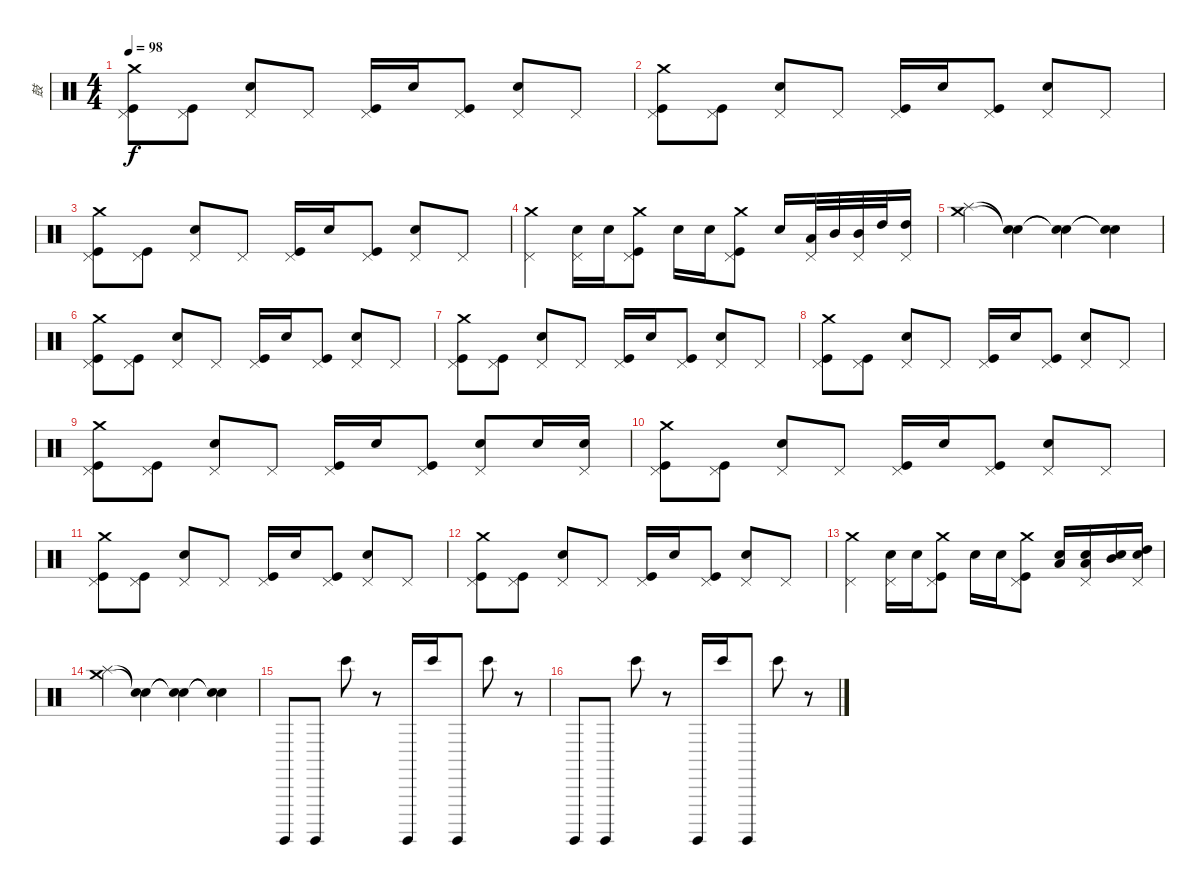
\track ("鼓" "鼓") {instrument percussion}
\staff {score}
\articulation defaults
\ts (4 4)
\tempo 98
\clef neutral
\ks c
("Pedal Hi-Hat (hit)" "Kick (hit)" "Crash medium (hit)").8{dy f} ("Pedal Hi-Hat (hit)" "Kick (hit)").8 ("Pedal Hi-Hat (hit)" "Electric Snare (hit)").8 "Pedal Hi-Hat (hit)".8 ("Pedal Hi-Hat (hit)" "Kick (hit)").16 "Electric Snare (hit)".16 ("Pedal Hi-Hat (hit)" "Kick (hit)").8 ("Pedal Hi-Hat (hit)" "Electric Snare (hit)").8 "Pedal Hi-Hat (hit)".8 |
("Pedal Hi-Hat (hit)" "Kick (hit)" "Crash medium (hit)").8 ("Pedal Hi-Hat (hit)" "Kick (hit)").8 ("Pedal Hi-Hat (hit)" "Electric Snare (hit)").8 "Pedal Hi-Hat (hit)".8 ("Pedal Hi-Hat (hit)" "Kick (hit)").16 "Electric Snare (hit)".16 ("Pedal Hi-Hat (hit)" "Kick (hit)").8 ("Pedal Hi-Hat (hit)" "Electric Snare (hit)").8 "Pedal Hi-Hat (hit)".8 |
("Pedal Hi-Hat (hit)" "Kick (hit)" "Crash medium (hit)").8 ("Pedal Hi-Hat (hit)" "Kick (hit)").8 ("Pedal Hi-Hat (hit)" "Electric Snare (hit)").8 "Pedal Hi-Hat (hit)".8 ("Pedal Hi-Hat (hit)" "Kick (hit)").16 "Electric Snare (hit)".16 ("Pedal Hi-Hat (hit)" "Kick (hit)").8 ("Pedal Hi-Hat (hit)" "Electric Snare (hit)").8 "Pedal Hi-Hat (hit)".8 |
("Pedal Hi-Hat (hit)" "Crash medium (hit)").4 ("Pedal Hi-Hat (hit)" "Electric Snare (hit)").16 "Electric Snare (hit)".16 ("Pedal Hi-Hat (hit)" "Kick (hit)" "Crash medium (hit)").8 "Electric Snare (hit)".16 "Electric Snare (hit)".16 ("Pedal Hi-Hat (hit)" "Kick (hit)" "Crash medium (hit)").8 "Electric Snare (hit)".16 ("Pedal Hi-Hat (hit)" "Low Tom (hit)").32 "Mid Tom (hit)".32 ("Pedal Hi-Hat (hit)" "Mid Tom (hit)").32 "High Tom (hit)".32 ("Pedal Hi-Hat (hit)" "High Tom (hit)").16 |
("Splash (hit)" "Crash medium (hit)").4 ("Snare (hit)"{t} "Snare (hit)"{t}).4 ("Snare (hit)"{t} "Snare (hit)"{t}).4 ("Snare (hit)"{t} "Snare (hit)"{t}).4 |
("Pedal Hi-Hat (hit)" "Kick (hit)" "Crash medium (hit)").8 ("Pedal Hi-Hat (hit)" "Kick (hit)").8 ("Pedal Hi-Hat (hit)" "Electric Snare (hit)").8 "Pedal Hi-Hat (hit)".8 ("Pedal Hi-Hat (hit)" "Kick (hit)").16 "Electric Snare (hit)".16 ("Pedal Hi-Hat (hit)" "Kick (hit)").8 ("Pedal Hi-Hat (hit)" "Electric Snare (hit)").8 "Pedal Hi-Hat (hit)".8 |
("Pedal Hi-Hat (hit)" "Kick (hit)" "Crash medium (hit)").8 ("Pedal Hi-Hat (hit)" "Kick (hit)").8 ("Pedal Hi-Hat (hit)" "Electric Snare (hit)").8 "Pedal Hi-Hat (hit)".8 ("Pedal Hi-Hat (hit)" "Kick (hit)").16 "Electric Snare (hit)".16 ("Pedal Hi-Hat (hit)" "Kick (hit)").8 ("Pedal Hi-Hat (hit)" "Electric Snare (hit)").8 "Pedal Hi-Hat (hit)".8 |
("Pedal Hi-Hat (hit)" "Kick (hit)" "Crash medium (hit)").8 ("Pedal Hi-Hat (hit)" "Kick (hit)").8 ("Pedal Hi-Hat (hit)" "Electric Snare (hit)").8 "Pedal Hi-Hat (hit)".8 ("Pedal Hi-Hat (hit)" "Kick (hit)").16 "Electric Snare (hit)".16 ("Pedal Hi-Hat (hit)" "Kick (hit)").8 ("Pedal Hi-Hat (hit)" "Electric Snare (hit)").8 "Pedal Hi-Hat (hit)".8 |
("Pedal Hi-Hat (hit)" "Kick (hit)" "Crash medium (hit)").8 ("Pedal Hi-Hat (hit)" "Kick (hit)").8 ("Pedal Hi-Hat (hit)" "Electric Snare (hit)").8 "Pedal Hi-Hat (hit)".8 ("Pedal Hi-Hat (hit)" "Kick (hit)").16 "Electric Snare (hit)".16 ("Pedal Hi-Hat (hit)" "Kick (hit)").8 ("Pedal Hi-Hat (hit)" "Electric Snare (hit)").8 "Electric Snare (hit)".16 ("Pedal Hi-Hat (hit)" "Electric Snare (hit)").16 |
("Pedal Hi-Hat (hit)" "Kick (hit)" "Crash medium (hit)").8 ("Pedal Hi-Hat (hit)" "Kick (hit)").8 ("Pedal Hi-Hat (hit)" "Electric Snare (hit)").8 "Pedal Hi-Hat (hit)".8 ("Pedal Hi-Hat (hit)" "Kick (hit)").16 "Electric Snare (hit)".16 ("Pedal Hi-Hat (hit)" "Kick (hit)").8 ("Pedal Hi-Hat (hit)" "Electric Snare (hit)").8 "Pedal Hi-Hat (hit)".8 |
("Pedal Hi-Hat (hit)" "Kick (hit)" "Crash medium (hit)").8 ("Pedal Hi-Hat (hit)" "Kick (hit)").8 ("Pedal Hi-Hat (hit)" "Electric Snare (hit)").8 "Pedal Hi-Hat (hit)".8 ("Pedal Hi-Hat (hit)" "Kick (hit)").16 "Electric Snare (hit)".16 ("Pedal Hi-Hat (hit)" "Kick (hit)").8 ("Pedal Hi-Hat (hit)" "Electric Snare (hit)").8 "Pedal Hi-Hat (hit)".8 |
("Pedal Hi-Hat (hit)" "Kick (hit)" "Crash medium (hit)").8 ("Pedal Hi-Hat (hit)" "Kick (hit)").8 ("Pedal Hi-Hat (hit)" "Electric Snare (hit)").8 "Pedal Hi-Hat (hit)".8 ("Pedal Hi-Hat (hit)" "Kick (hit)").16 "Electric Snare (hit)".16 ("Pedal Hi-Hat (hit)" "Kick (hit)").8 ("Pedal Hi-Hat (hit)" "Electric Snare (hit)").8 "Pedal Hi-Hat (hit)".8 |
("Pedal Hi-Hat (hit)" "Crash medium (hit)").4 ("Pedal Hi-Hat (hit)" "Electric Snare (hit)").16 "Electric Snare (hit)".16 ("Pedal Hi-Hat (hit)" "Kick (hit)" "Crash medium (hit)").8 "Electric Snare (hit)".16 "Electric Snare (hit)".16 ("Pedal Hi-Hat (hit)" "Kick (hit)" "Crash medium (hit)").8 ("Low Tom (hit)" "Electric Snare (hit)").16 ("Pedal Hi-Hat (hit)" "Low Tom (hit)" "Electric Snare (hit)").16 ("Mid Tom (hit)" "Electric Snare (hit)").16 ("Pedal Hi-Hat (hit)" "High Tom (hit)" "Electric Snare (hit)").16 |
("Splash (hit)" "Crash medium (hit)").4 ("Snare (hit)"{t} "Snare (hit)"{t}).4 ("Snare (hit)"{t} "Snare (hit)"{t}).4 ("Snare (hit)"{t} "Snare (hit)"{t}).4 |
"Surdo (hit)".8 "Surdo (hit)".8 "Bongo High (hit)".8 r.8 "Surdo (hit)".16 "Bongo High (hit)".16 "Surdo (hit)".8 "Bongo High (hit)".8 r.8 |
"Surdo (hit)".8 "Surdo (hit)".8 "Bongo High (hit)".8 r.8 "Surdo (hit)".16 "Bongo High (hit)".16 "Surdo (hit)".8 "Bongo High (hit)".8 r.8
